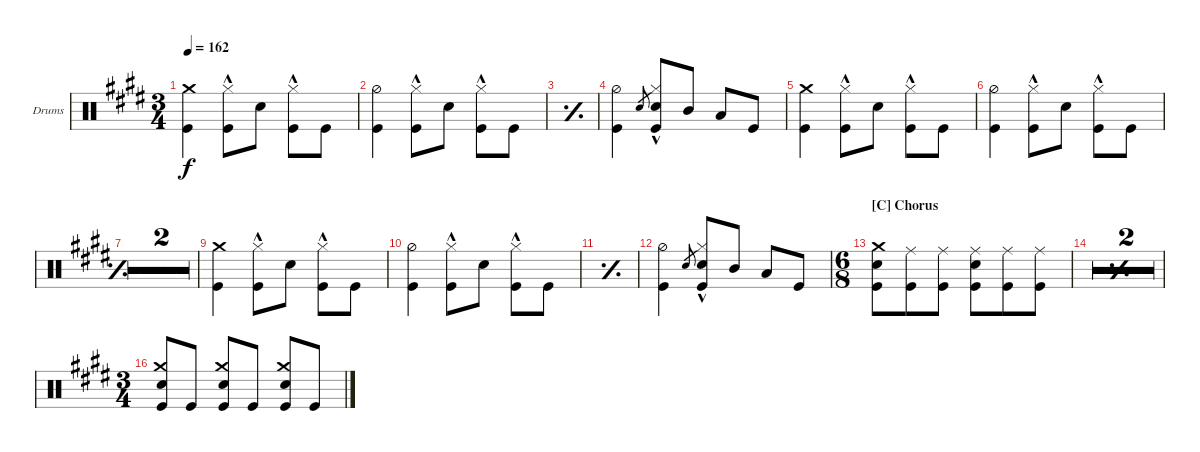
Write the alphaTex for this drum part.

\defaultSystemsLayout 4
\bracketExtendMode groupsimilarinstruments
\firstSystemTrackNameOrientation horizontal
\otherSystemsTrackNameOrientation horizontal
\track ("Dave Grohl (Drums)" "Drums") {multiBarRest instrument percussion}
\staff {score}
\articulation defaults
\ts (3 4)
\tempo 162
\clef neutral
\ks e
("Kick (hit)" "Crash medium (hit)").4{dy f} ("Kick (hit)" "Hi-Hat (closed)"{hac}).8 "Snare (hit) 2".8 ("Kick (hit)" "Hi-Hat (closed)"{hac}).8 "Kick (hit)".8 |
("Kick (hit)" "Hi-Hat (half)").4 ("Kick (hit)" "Hi-Hat (closed)"{hac}).8 "Snare (hit) 2".8 ("Kick (hit)" "Hi-Hat (closed)"{hac}).8 "Kick (hit)".8 |
\simile simple
|
\simile none
("Kick (hit)" "Hi-Hat (half)").4 "Snare (hit) 2".8{gr} ("Kick (hit)" "Hi-Hat (closed)"{hac} "Snare (hit) 2").8 "Mid Tom (hit)".8 "Low Tom (hit)".8 "Kick (hit)".8 |
("Kick (hit)" "Crash medium (hit)").4 ("Kick (hit)" "Hi-Hat (closed)"{hac}).8 "Snare (hit) 2".8 ("Kick (hit)" "Hi-Hat (closed)"{hac}).8 "Kick (hit)".8 |
("Kick (hit)" "Hi-Hat (half)").4 ("Kick (hit)" "Hi-Hat (closed)"{hac}).8 "Snare (hit) 2".8 ("Kick (hit)" "Hi-Hat (closed)"{hac}).8 "Kick (hit)".8 |
\simile simple
|
|
\simile none
("Kick (hit)" "Crash medium (hit)").4 ("Kick (hit)" "Hi-Hat (closed)"{hac}).8 "Snare (hit) 2".8 ("Kick (hit)" "Hi-Hat (closed)"{hac}).8 "Kick (hit)".8 |
("Kick (hit)" "Hi-Hat (half)").4 ("Kick (hit)" "Hi-Hat (closed)"{hac}).8 "Snare (hit) 2".8 ("Kick (hit)" "Hi-Hat (closed)"{hac}).8 "Kick (hit)".8 |
\simile simple
|
\simile none
("Kick (hit)" "Hi-Hat (half)").4 "Snare (hit) 2".8{gr} ("Kick (hit)" "Hi-Hat (closed)"{hac} "Snare (hit) 2").8 "Mid Tom (hit)".8 "Low Tom (hit)".8 "Kick (hit)".8 |
\ts (6 8)
\section ("C" "Chorus")
("Snare (hit) 2" "Crash medium (hit)" "Kick (hit)").8 ("Ride (middle)" "Kick (hit)").8 ("Ride (middle)" "Kick (hit)").8 ("Snare (hit) 2" "Ride (middle)" "Kick (hit)").8 ("Ride (middle)" "Kick (hit)").8 ("Ride (middle)" "Kick (hit)").8 |
\simile simple
|
|
\ts (3 4)
\simile none
("Snare (hit) 2" "Crash medium (hit)" "Kick (hit)").8 "Kick (hit)".8 ("Snare (hit) 2" "Crash medium (hit)" "Kick (hit)").8 "Kick (hit)".8 ("Snare (hit) 2" "Crash medium (hit)" "Kick (hit)").8 "Kick (hit)".8
